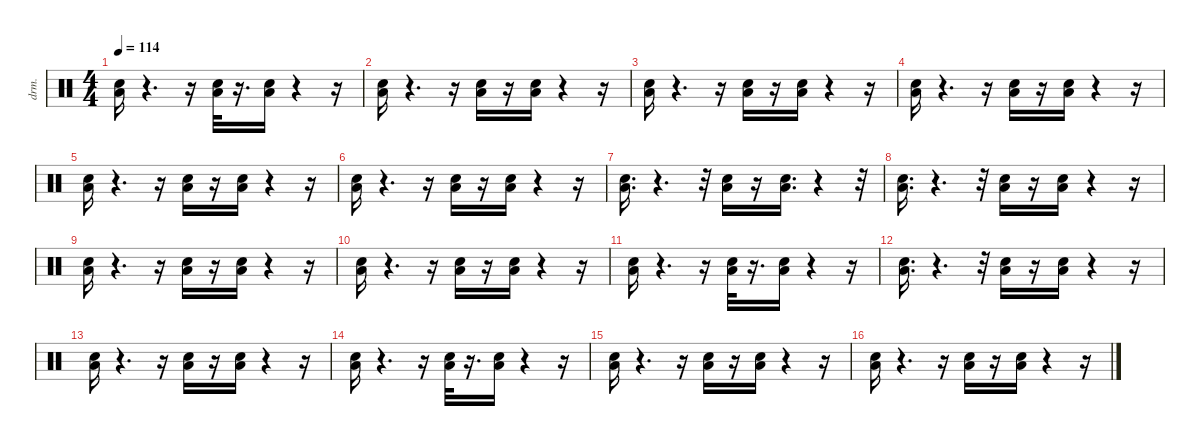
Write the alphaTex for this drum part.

\defaultSystemsLayout 4
\hideDynamics
\bracketExtendMode nobrackets
\otherSystemsTrackNameOrientation horizontal
\track ("Taiko drum" "drm.") {instrument percussion}
\staff {score}
\articulation defaults
\ts (4 4)
\tempo 114
\clef neutral
\ks c
("Low Floor Tom (hit)" "Snare (hit) 2").16{dy fff} r.4{d} r.16 ("Low Floor Tom (hit)" "Snare (hit) 2").32 r.16{d} ("Low Floor Tom (hit)" "Snare (hit) 2").16 r.4 r.16 |
("Low Floor Tom (hit)" "Snare (hit) 2").16 r.4{d} r.16 ("Low Floor Tom (hit)" "Snare (hit) 2").16 r.16 ("Low Floor Tom (hit)" "Snare (hit) 2").16 r.4 r.16 |
("Low Floor Tom (hit)" "Snare (hit) 2").16 r.4{d} r.16 ("Low Floor Tom (hit)" "Snare (hit) 2").16{dy ff} r.16 ("Low Floor Tom (hit)" "Snare (hit) 2").16{dy fff} r.4 r.16 |
("Low Floor Tom (hit)" "Snare (hit) 2").16 r.4{d} r.16 ("Low Floor Tom (hit)" "Snare (hit) 2").16{dy ff} r.16 ("Low Floor Tom (hit)" "Snare (hit) 2").16{dy fff} r.4 r.16 |
("Low Floor Tom (hit)" "Snare (hit) 2").16 r.4{d} r.16 ("Low Floor Tom (hit)" "Snare (hit) 2").16 r.16 ("Low Floor Tom (hit)" "Snare (hit) 2").16 r.4 r.16 |
("Snare (hit) 2" "Low Floor Tom (hit)").16 r.4{d} r.16 ("Snare (hit) 2" "Low Floor Tom (hit)").16 r.16 ("Snare (hit) 2" "Low Floor Tom (hit)").16 r.4 r.16 |
("Low Floor Tom (hit)" "Snare (hit) 2").16{d} r.4{d} r.32 ("Low Floor Tom (hit)" "Snare (hit) 2").16 r.16 ("Low Floor Tom (hit)" "Snare (hit) 2").16{d} r.4 r.32 |
("Low Floor Tom (hit)" "Snare (hit) 2").16{d} r.4{d} r.32 ("Low Floor Tom (hit)" "Snare (hit) 2").16 r.16 ("Low Floor Tom (hit)" "Snare (hit) 2").16 r.4 r.16 |
("Low Floor Tom (hit)" "Snare (hit) 2").16 r.4{d} r.16 ("Low Floor Tom (hit)" "Snare (hit) 2").16 r.16 ("Low Floor Tom (hit)" "Snare (hit) 2").16 r.4 r.16 |
("Low Floor Tom (hit)" "Snare (hit) 2").16 r.4{d} r.16 ("Low Floor Tom (hit)" "Snare (hit) 2").16 r.16 ("Low Floor Tom (hit)" "Snare (hit) 2").16 r.4 r.16 |
("Low Floor Tom (hit)" "Snare (hit) 2").16 r.4{d} r.16 ("Snare (hit) 2" "Low Floor Tom (hit)").32{dy ff} r.16{d} ("Low Floor Tom (hit)" "Snare (hit) 2").16{dy fff} r.4 r.16 |
("Low Floor Tom (hit)" "Snare (hit) 2").16{d} r.4{d} r.32 ("Low Floor Tom (hit)" "Snare (hit) 2").16 r.16 ("Low Floor Tom (hit)" "Snare (hit) 2").16 r.4 r.16 |
("Low Floor Tom (hit)" "Snare (hit) 2").16 r.4{d} r.16 ("Low Floor Tom (hit)" "Snare (hit) 2").16 r.16 ("Low Floor Tom (hit)" "Snare (hit) 2").16 r.4 r.16 |
("Low Floor Tom (hit)" "Snare (hit) 2").16 r.4{d} r.16 ("Low Floor Tom (hit)" "Snare (hit) 2").32 r.16{d} ("Low Floor Tom (hit)" "Snare (hit) 2").16 r.4 r.16 |
("Low Floor Tom (hit)" "Snare (hit) 2").16 r.4{d} r.16 ("Low Floor Tom (hit)" "Snare (hit) 2").16 r.16 ("Low Floor Tom (hit)" "Snare (hit) 2").16 r.4 r.16 |
("Low Floor Tom (hit)" "Snare (hit) 2").16 r.4{d} r.16 ("Low Floor Tom (hit)" "Snare (hit) 2").16 r.16 ("Low Floor Tom (hit)" "Snare (hit) 2").16 r.4 r.16
